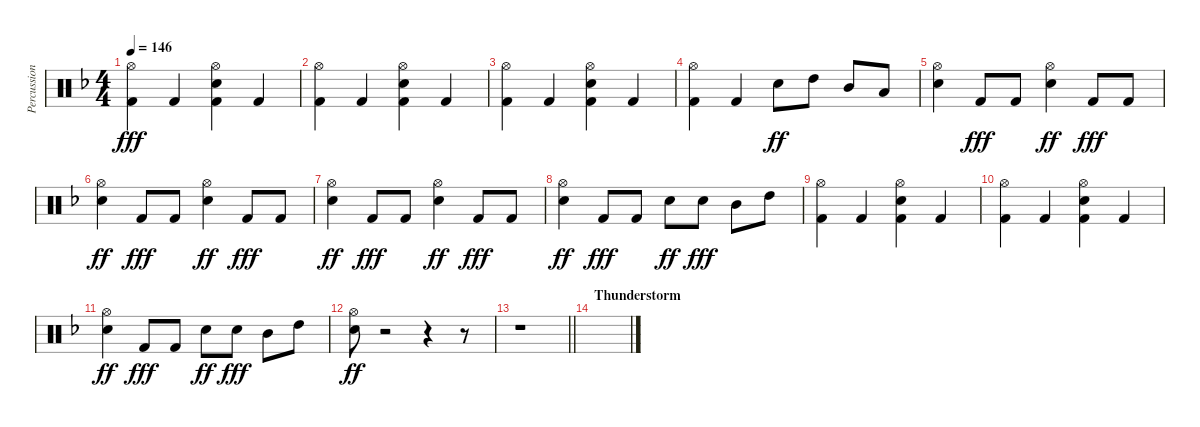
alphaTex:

\track ("Percussions" "Percussion") {instrument percussion}
\staff {score}
\articulation defaults
\ts (4 4)
\tempo 146
\clef neutral
\ks f
("Hi-Hat (open)" "Kick (hit) 2").4{dy fff} "Kick (hit) 2".4 ("Hi-Hat (open)" "Snare (hit) 2" "Kick (hit) 2").4 "Kick (hit) 2".4 |
("Hi-Hat (open)" "Kick (hit) 2").4 "Kick (hit) 2".4 ("Hi-Hat (open)" "Snare (hit) 2" "Kick (hit) 2").4 "Kick (hit) 2".4 |
("Hi-Hat (open)" "Kick (hit) 2").4 "Kick (hit) 2".4 ("Hi-Hat (open)" "Snare (hit) 2" "Kick (hit) 2").4 "Kick (hit) 2".4 |
("Hi-Hat (open)" "Kick (hit) 2").4 "Kick (hit) 2".4 "Snare (hit) 2".8{dy ff} "High Tom (hit)".8 "Mid Tom (hit)".8 "Low Tom (hit)".8 |
("Hi-Hat (open)" "Snare (hit) 2").4 "Kick (hit) 2".8{dy fff} "Kick (hit) 2".8 ("Hi-Hat (open)" "Snare (hit) 2").4{dy ff} "Kick (hit) 2".8{dy fff} "Kick (hit) 2".8 |
("Hi-Hat (open)" "Snare (hit) 2").4{dy ff} "Kick (hit) 2".8{dy fff} "Kick (hit) 2".8 ("Hi-Hat (open)" "Snare (hit) 2").4{dy ff} "Kick (hit) 2".8{dy fff} "Kick (hit) 2".8 |
("Hi-Hat (open)" "Snare (hit) 2").4{dy ff} "Kick (hit) 2".8{dy fff} "Kick (hit) 2".8 ("Hi-Hat (open)" "Snare (hit) 2").4{dy ff} "Kick (hit) 2".8{dy fff} "Kick (hit) 2".8 |
("Hi-Hat (open)" "Snare (hit) 2").4{dy ff} "Kick (hit) 2".8{dy fff} "Kick (hit) 2".8 "Snare (hit) 2".8{dy ff} "Snare (hit) 2".8{dy fff} "Mid Tom (hit)".8 "High Tom (hit)".8 |
("Hi-Hat (open)" "Kick (hit) 2").4 "Kick (hit) 2".4 ("Hi-Hat (open)" "Snare (hit) 2" "Kick (hit) 2").4 "Kick (hit) 2".4 |
("Hi-Hat (open)" "Kick (hit) 2").4 "Kick (hit) 2".4 ("Hi-Hat (open)" "Snare (hit) 2" "Kick (hit) 2").4 "Kick (hit) 2".4 |
("Hi-Hat (open)" "Snare (hit) 2").4{dy ff} "Kick (hit) 2".8{dy fff} "Kick (hit) 2".8 "Snare (hit) 2".8{dy ff} "Snare (hit) 2".8{dy fff} "Mid Tom (hit)".8 "High Tom (hit)".8 |
("Hi-Hat (open)" "Snare (hit) 2").8{dy ff} r.2 r.4 r.8 |
\barLineRight lightlight
r.1 |
\section ("" "Thunderstorm")
